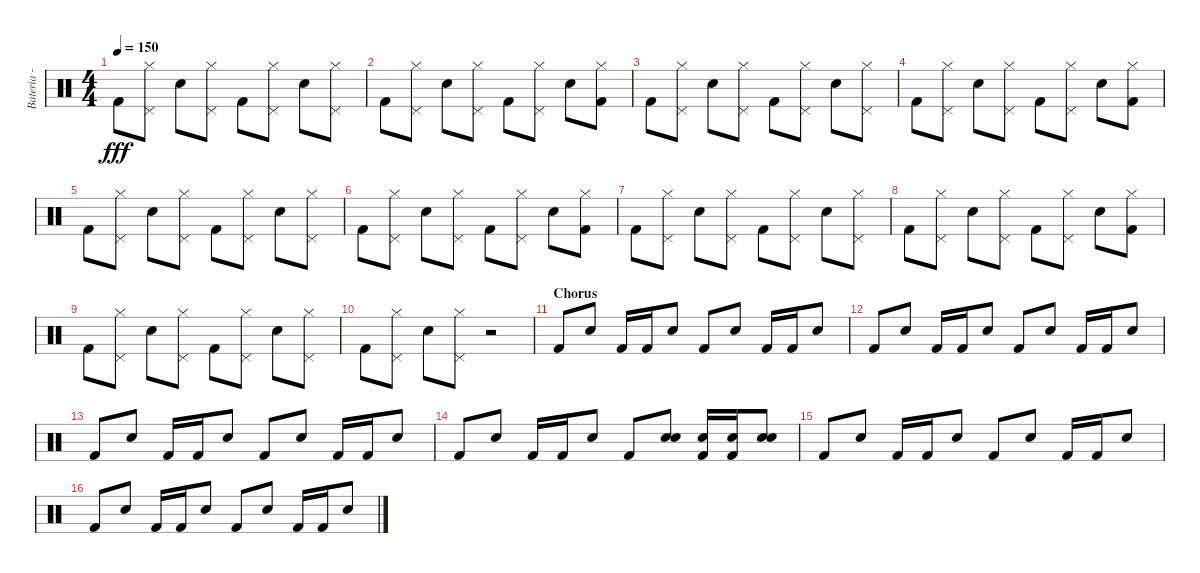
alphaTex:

\track ("Bateria - Larzon" "Bateria - ") {instrument percussion}
\staff {score}
\articulation defaults
\ts (4 4)
\tempo 150
\clef neutral
\ks c "Kick (hit) 2".8{dy fff}
("Hi-Hat (closed)" "Pedal Hi-Hat (hit)").8 "Electric Snare (hit)".8 ("Hi-Hat (closed)" "Pedal Hi-Hat (hit)").8 "Kick (hit) 2".8 ("Hi-Hat (closed)" "Pedal Hi-Hat (hit)").8 "Electric Snare (hit)".8 ("Hi-Hat (closed)" "Pedal Hi-Hat (hit)").8 |
"Kick (hit) 2".8 ("Hi-Hat (closed)" "Pedal Hi-Hat (hit)").8 "Electric Snare (hit)".8 ("Hi-Hat (closed)" "Pedal Hi-Hat (hit)").8 "Kick (hit) 2".8 ("Hi-Hat (closed)" "Pedal Hi-Hat (hit)").8 "Electric Snare (hit)".8 ("Kick (hit) 2" "Hi-Hat (closed)").8 |
"Kick (hit) 2".8 ("Hi-Hat (closed)" "Pedal Hi-Hat (hit)").8 "Electric Snare (hit)".8 ("Hi-Hat (closed)" "Pedal Hi-Hat (hit)").8 "Kick (hit) 2".8 ("Hi-Hat (closed)" "Pedal Hi-Hat (hit)").8 "Electric Snare (hit)".8 ("Hi-Hat (closed)" "Pedal Hi-Hat (hit)").8 |
"Kick (hit) 2".8 ("Hi-Hat (closed)" "Pedal Hi-Hat (hit)").8 "Electric Snare (hit)".8 ("Hi-Hat (closed)" "Pedal Hi-Hat (hit)").8 "Kick (hit) 2".8 ("Hi-Hat (closed)" "Pedal Hi-Hat (hit)").8 "Electric Snare (hit)".8 ("Kick (hit) 2" "Hi-Hat (closed)").8 |
"Kick (hit) 2".8 ("Hi-Hat (closed)" "Pedal Hi-Hat (hit)").8 "Electric Snare (hit)".8 ("Hi-Hat (closed)" "Pedal Hi-Hat (hit)").8 "Kick (hit) 2".8 ("Hi-Hat (closed)" "Pedal Hi-Hat (hit)").8 "Electric Snare (hit)".8 ("Hi-Hat (closed)" "Pedal Hi-Hat (hit)").8 |
"Kick (hit) 2".8 ("Hi-Hat (closed)" "Pedal Hi-Hat (hit)").8 "Electric Snare (hit)".8 ("Hi-Hat (closed)" "Pedal Hi-Hat (hit)").8 "Kick (hit) 2".8 ("Hi-Hat (closed)" "Pedal Hi-Hat (hit)").8 "Electric Snare (hit)".8 ("Kick (hit) 2" "Hi-Hat (closed)").8 |
"Kick (hit) 2".8 ("Hi-Hat (closed)" "Pedal Hi-Hat (hit)").8 "Electric Snare (hit)".8 ("Hi-Hat (closed)" "Pedal Hi-Hat (hit)").8 "Kick (hit) 2".8 ("Hi-Hat (closed)" "Pedal Hi-Hat (hit)").8 "Electric Snare (hit)".8 ("Hi-Hat (closed)" "Pedal Hi-Hat (hit)").8 |
"Kick (hit) 2".8 ("Hi-Hat (closed)" "Pedal Hi-Hat (hit)").8 "Electric Snare (hit)".8 ("Hi-Hat (closed)" "Pedal Hi-Hat (hit)").8 "Kick (hit) 2".8 ("Hi-Hat (closed)" "Pedal Hi-Hat (hit)").8 "Electric Snare (hit)".8 ("Kick (hit) 2" "Hi-Hat (closed)").8 |
"Kick (hit) 2".8 ("Hi-Hat (closed)" "Pedal Hi-Hat (hit)").8 "Electric Snare (hit)".8 ("Hi-Hat (closed)" "Pedal Hi-Hat (hit)").8 "Kick (hit) 2".8 ("Hi-Hat (closed)" "Pedal Hi-Hat (hit)").8 "Electric Snare (hit)".8 ("Hi-Hat (closed)" "Pedal Hi-Hat (hit)").8 |
"Kick (hit) 2".8 ("Hi-Hat (closed)" "Pedal Hi-Hat (hit)").8 "Electric Snare (hit)".8 ("Hi-Hat (closed)" "Pedal Hi-Hat (hit)").8 r.2 |
\section ("" "Chorus")
"Kick (hit) 2".8 "Electric Snare (hit)".8 "Kick (hit) 2".16 "Kick (hit) 2".16 "Electric Snare (hit)".8 "Kick (hit) 2".8 "Electric Snare (hit)".8 "Kick (hit) 2".16 "Kick (hit) 2".16 "Electric Snare (hit)".8 |
"Kick (hit) 2".8 "Electric Snare (hit)".8 "Kick (hit) 2".16 "Kick (hit) 2".16 "Electric Snare (hit)".8 "Kick (hit) 2".8 "Electric Snare (hit)".8 "Kick (hit) 2".16 "Kick (hit) 2".16 "Electric Snare (hit)".8 |
"Kick (hit) 2".8 "Electric Snare (hit)".8 "Kick (hit) 2".16 "Kick (hit) 2".16 "Electric Snare (hit)".8 "Kick (hit) 2".8 "Electric Snare (hit)".8 "Kick (hit) 2".16 "Kick (hit) 2".16 "Electric Snare (hit)".8 |
"Kick (hit) 2".8 "Electric Snare (hit)".8 "Kick (hit) 2".16 "Kick (hit) 2".16 "Electric Snare (hit)".8 "Kick (hit) 2".8 ("Electric Snare (hit)" "Electric Snare (hit)").8 ("Kick (hit) 2" "Electric Snare (hit)").16 ("Kick (hit) 2" "Electric Snare (hit)").16 ("Electric Snare (hit)" "Electric Snare (hit)").8 |
"Kick (hit) 2".8 "Electric Snare (hit)".8 "Kick (hit) 2".16 "Kick (hit) 2".16 "Electric Snare (hit)".8 "Kick (hit) 2".8 "Electric Snare (hit)".8 "Kick (hit) 2".16 "Kick (hit) 2".16 "Electric Snare (hit)".8 |
"Kick (hit) 2".8 "Electric Snare (hit)".8 "Kick (hit) 2".16 "Kick (hit) 2".16 "Electric Snare (hit)".8 "Kick (hit) 2".8 "Electric Snare (hit)".8 "Kick (hit) 2".16 "Kick (hit) 2".16 "Electric Snare (hit)".8
